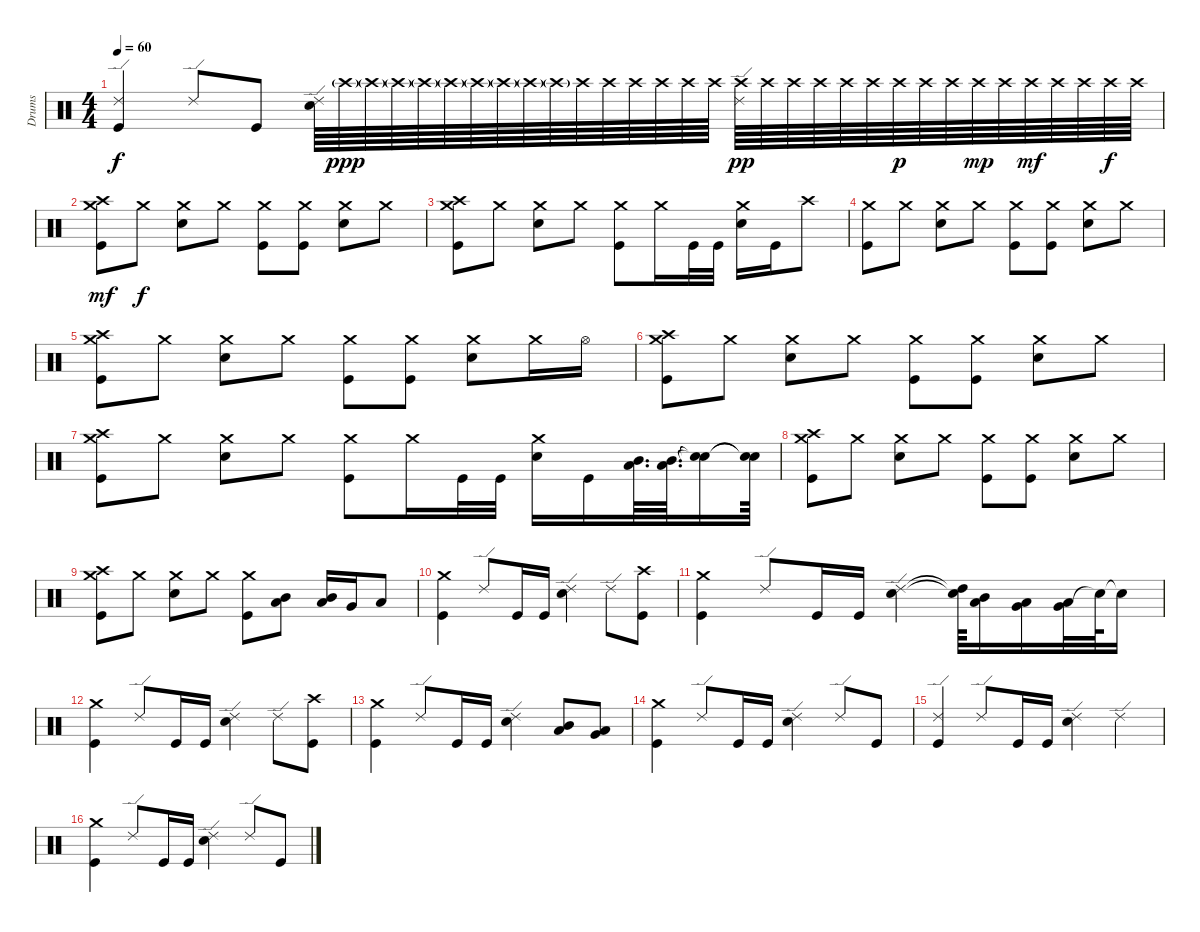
\track ("Drums" "Drums") {instrument percussion}
\staff {score}
\articulation defaults
\ts (4 4)
\tempo 60
\clef neutral
\ks c
("Ride (edge) 2" "Kick (hit)").4{dy f} "Ride (edge) 2".8 "Kick (hit)".8 ("Ride (edge) 2" "Snare (hit) 2").64 "Crash high (hit)"{g}.64{dy ppp} "Crash high (hit)"{g}.64 "Crash high (hit)"{g}.64 "Crash high (hit)"{g}.64 "Crash high (hit)"{g}.64 "Crash high (hit)"{g}.64 "Crash high (hit)"{g}.64 "Crash high (hit)"{g}.64 "Crash high (hit)"{g}.64 "Crash high (hit)".64 "Crash high (hit)".64 "Crash high (hit)".64 "Crash high (hit)".64 "Crash high (hit)".64 "Crash high (hit)".64 ("Ride (edge) 2" "Crash high (hit)").64{dy pp} "Crash high (hit)".64 "Crash high (hit)".64 "Crash high (hit)".64 "Crash high (hit)".64 "Crash high (hit)".64 "Crash high (hit)".64{dy p} "Crash high (hit)".64 "Crash high (hit)".64 "Crash high (hit)".64{dy mp} "Crash high (hit)".64 "Crash high (hit)".64{dy mf} "Crash high (hit)".64 "Crash high (hit)".64 "Crash high (hit)".64{dy f} "Crash high (hit)".64 |
("Crash medium (hit)" "Crash high (hit)" "Kick (hit)").8{dy mf} "Crash medium (hit)".8{dy f} ("Crash medium (hit)" "Snare (hit) 2").8 "Crash medium (hit)".8 ("Crash medium (hit)" "Kick (hit)").8 ("Crash medium (hit)" "Kick (hit)").8 ("Crash medium (hit)" "Snare (hit) 2").8 "Crash medium (hit)".8 |
("Crash medium (hit)" "Crash high (hit)" "Kick (hit)").8 "Crash medium (hit)".8 ("Crash medium (hit)" "Snare (hit) 2").8 "Crash medium (hit)".8 ("Crash medium (hit)" "Kick (hit)").8 "Crash medium (hit)".16 "Kick (hit)".32 "Kick (hit)".32 ("Crash medium (hit)" "Snare (hit) 2").16 "Kick (hit)".16 "Crash high (hit)".8 |
("Crash medium (hit)" "Kick (hit)").8 "Crash medium (hit)".8 ("Crash medium (hit)" "Snare (hit) 2").8 "Crash medium (hit)".8 ("Crash medium (hit)" "Kick (hit)").8 ("Crash medium (hit)" "Kick (hit)").8 ("Crash medium (hit)" "Snare (hit) 2").8 "Crash medium (hit)".8 |
("Crash medium (hit)" "Crash high (hit)" "Kick (hit)").8 "Crash medium (hit)".8 ("Crash medium (hit)" "Snare (hit) 2").8 "Crash medium (hit)".8 ("Crash medium (hit)" "Kick (hit)").8 ("Crash medium (hit)" "Kick (hit)").8 ("Crash medium (hit)" "Snare (hit) 2").8 "Crash medium (hit)".16 "Hi-Hat (open)".16 |
("Crash medium (hit)" "Crash high (hit)" "Kick (hit)").8 "Crash medium (hit)".8 ("Crash medium (hit)" "Snare (hit) 2").8 "Crash medium (hit)".8 ("Crash medium (hit)" "Kick (hit)").8 ("Crash medium (hit)" "Kick (hit)").8 ("Crash medium (hit)" "Snare (hit) 2").8 "Crash medium (hit)".8 |
("Crash medium (hit)" "Crash high (hit)" "Kick (hit)").8 "Crash medium (hit)".8 ("Crash medium (hit)" "Snare (hit) 2").8 "Crash medium (hit)".8 ("Crash medium (hit)" "Kick (hit)").8 "Crash medium (hit)".16 "Kick (hit)".32 "Kick (hit)".32 ("Crash medium (hit)" "Snare (hit) 2").16 "Kick (hit)".16 ("Mid Tom (hit)" "Low Tom (hit)").64{d} ("Mid Tom (hit)" "Low Tom (hit)").64{d} ("Snare (hit)"{t} "Snare (hit)"{t}).16 ("Snare (hit)"{t} "Snare (hit)"{t}).64 |
("Crash medium (hit)" "Crash high (hit)" "Kick (hit)").8 "Crash medium (hit)".8 ("Crash medium (hit)" "Snare (hit) 2").8 "Crash medium (hit)".8 ("Crash medium (hit)" "Kick (hit)").8 ("Crash medium (hit)" "Kick (hit)").8 ("Crash medium (hit)" "Snare (hit) 2").8 "Crash medium (hit)".8 |
("Crash medium (hit)" "Crash high (hit)" "Kick (hit)").8 "Crash medium (hit)".8 ("Crash medium (hit)" "Snare (hit) 2").8 "Crash medium (hit)".8 ("Crash medium (hit)" "Kick (hit)").8 ("Mid Tom (hit)" "Low Tom (hit)").8 ("Mid Tom (hit)" "Low Tom (hit)").16 "Very Low Tom (hit)".16 "Low Floor Tom (hit)".8 |
("Crash medium (hit)" "Kick (hit)").4 "Ride (edge) 2".8 "Kick (hit)".16 "Kick (hit)".16 ("Ride (edge) 2" "Snare (hit) 2").4 "Ride (edge) 2".8 ("Crash high (hit)" "Kick (hit)").8 |
("Crash medium (hit)" "Kick (hit)").4 "Ride (edge) 2".8 "Kick (hit)".16 "Kick (hit)".16 ("Ride (edge) 2" "Snare (hit) 2").4 ("High Tom (hit)"{t} "Snare (hit)"{t}).64 ("Mid Tom (hit)" "Low Tom (hit)").16 ("Low Tom (hit)" "Very Low Tom (hit)").16 ("Very Low Tom (hit)" "Low Floor Tom (hit)").32 "Snare (hit)"{t}.64 "Snare (hit)"{t}.16 |
("Crash medium (hit)" "Kick (hit)").4 "Ride (edge) 2".8 "Kick (hit)".16 "Kick (hit)".16 ("Ride (edge) 2" "Snare (hit) 2").4 "Ride (edge) 2".8 ("Crash high (hit)" "Kick (hit)").8 |
("Crash medium (hit)" "Kick (hit)").4 "Ride (edge) 2".8 "Kick (hit)".16 "Kick (hit)".16 ("Ride (edge) 2" "Snare (hit) 2").4 ("Mid Tom (hit)" "Low Tom (hit)").8 ("Very Low Tom (hit)" "Low Floor Tom (hit)").8 |
("Crash medium (hit)" "Kick (hit)").4 "Ride (edge) 2".8 "Kick (hit)".16 "Kick (hit)".16 ("Ride (edge) 2" "Snare (hit) 2").4 "Ride (edge) 2".8 "Kick (hit)".8 |
("Ride (edge) 2" "Kick (hit)").4 "Ride (edge) 2".8 "Kick (hit)".16 "Kick (hit)".16 ("Ride (edge) 2" "Snare (hit) 2").4 "Ride (edge) 2".4 |
("Crash medium (hit)" "Kick (hit)").4 "Ride (edge) 2".8 "Kick (hit)".16 "Kick (hit)".16 ("Ride (edge) 2" "Snare (hit) 2").4 "Ride (edge) 2".8 "Kick (hit)".8
